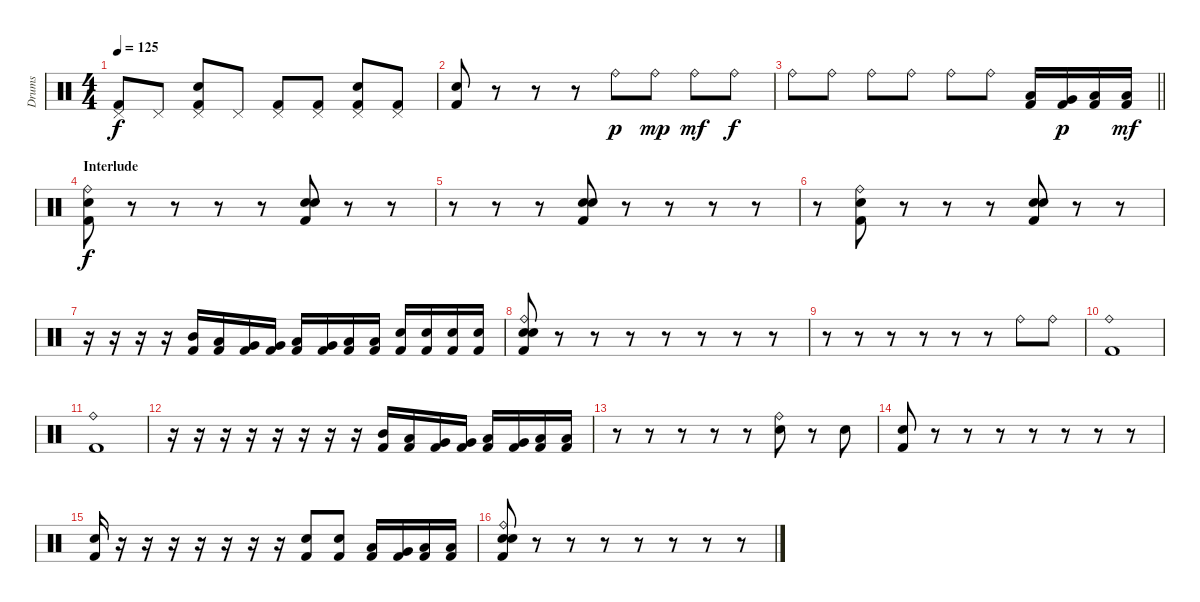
\track ("Drums" "Drums") {instrument percussion}
\staff {score}
\articulation defaults
\ts (4 4)
\tempo 125
\clef neutral
\ks c
("Pedal Hi-Hat (hit)" "Kick (hit) 2").8{dy f} "Pedal Hi-Hat (hit)".8 ("Pedal Hi-Hat (hit)" "Snare (hit) 2" "Kick (hit) 2").8 "Pedal Hi-Hat (hit)".8 ("Pedal Hi-Hat (hit)" "Kick (hit) 2").8 ("Pedal Hi-Hat (hit)" "Kick (hit) 2").8 ("Pedal Hi-Hat (hit)" "Snare (hit) 2" "Kick (hit) 2").8 ("Pedal Hi-Hat (hit)" "Kick (hit) 2").8 |
("Snare (hit) 2" "Kick (hit) 2").8 r.8 r.8 r.8 "Ride (bell)".8{dy p} "Ride (bell)".8{dy mp} "Ride (bell)".8{dy mf} "Ride (bell)".8{dy f} |
\barLineRight lightlight "Ride (bell)".8 "Ride (bell)".8 "Ride (bell)".8 "Ride (bell)".8 "Ride (bell)".8 "Ride (bell)".8
("Low Tom (hit)" "Kick (hit) 2").16 ("Very Low Tom (hit)" "Kick (hit) 2").16{dy p} ("Low Floor Tom (hit)" "Kick (hit) 2").16 ("Low Floor Tom (hit)" "Kick (hit) 2").16{dy mf} |
\section ("" "Interlude")
("Ride (bell)" "Snare (hit) 2" "Kick (hit) 2").8{dy f} r.8 r.8 r.8 r.8 ("Snare (hit) 2" "Electric Snare (hit)" "Kick (hit) 2").8 r.8 r.8 |
r.8 r.8 r.8 ("Snare (hit) 2" "Electric Snare (hit)" "Kick (hit) 2").8 r.8 r.8 r.8 r.8 |
r.8 ("Ride (bell)" "Snare (hit) 2" "Kick (hit) 2").8 r.8 r.8 r.8 ("Snare (hit) 2" "Electric Snare (hit)" "Kick (hit) 2").8 r.8 r.8 |
r.16 r.16 r.16 r.16 ("Mid Tom (hit)" "Kick (hit) 2").16 ("Low Tom (hit)" "Kick (hit) 2").16 ("Very Low Tom (hit)" "Kick (hit) 2").16 ("Very Low Tom (hit)" "Kick (hit) 2").16 ("Low Tom (hit)" "Kick (hit) 2").16 ("Very Low Tom (hit)" "Kick (hit) 2").16 ("Low Floor Tom (hit)" "Kick (hit) 2").16 ("Low Floor Tom (hit)" "Kick (hit) 2").16 ("Snare (hit) 2" "Kick (hit) 2").16 ("Snare (hit) 2" "Kick (hit) 2").16 ("Snare (hit) 2" "Kick (hit) 2").16 ("Snare (hit) 2" "Kick (hit) 2").16 |
("Ride (bell)" "Snare (hit) 2" "Electric Snare (hit)" "Kick (hit) 2").8 r.8 r.8 r.8 r.8 r.8 r.8 r.8 |
r.8 r.8 r.8 r.8 r.8 r.8 "Ride (bell)".8 "Ride (bell)".8 |
("Ride (bell)" "Kick (hit) 2").1 |
("Ride (bell)" "Kick (hit) 2").1 |
r.16 r.16 r.16 r.16 r.16 r.16 r.16 r.16 ("Mid Tom (hit)" "Kick (hit) 2").16 ("Low Tom (hit)" "Kick (hit) 2").16 ("Very Low Tom (hit)" "Kick (hit) 2").16 ("Very Low Tom (hit)" "Kick (hit) 2").16 ("Low Tom (hit)" "Kick (hit) 2").16 ("Very Low Tom (hit)" "Kick (hit) 2").16 ("Low Floor Tom (hit)" "Kick (hit) 2").16 ("Low Floor Tom (hit)" "Kick (hit) 2").16 |
r.8 r.8 r.8 r.8 r.8 ("Ride (bell)" "Snare (hit) 2").8 r.8 "Snare (hit) 2".8 |
("Snare (hit) 2" "Kick (hit) 2").8 r.8 r.8 r.8 r.8 r.8 r.8 r.8 |
("Snare (hit) 2" "Kick (hit) 2").16 r.16 r.16 r.16 r.16 r.16 r.16 r.16 ("Snare (hit) 2" "Kick (hit) 2").8 ("Snare (hit) 2" "Kick (hit) 2").8 ("Low Tom (hit)" "Kick (hit) 2").16 ("Very Low Tom (hit)" "Kick (hit) 2").16 ("Low Floor Tom (hit)" "Kick (hit) 2").16 ("Low Floor Tom (hit)" "Kick (hit) 2").16 |
("Ride (bell)" "Snare (hit) 2" "Electric Snare (hit)" "Kick (hit) 2").8 r.8 r.8 r.8 r.8 r.8 r.8 r.8
